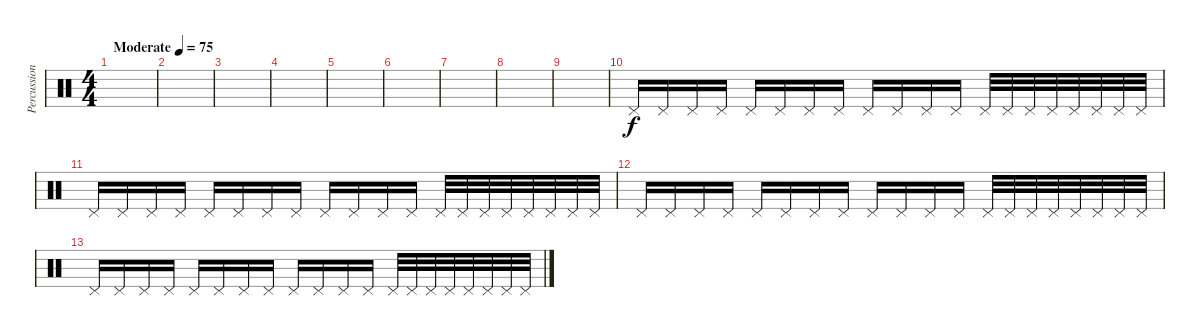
\track ("Percussion" "Percussion") {instrument percussion}
\staff {score}
\articulation defaults
\ts (4 4)
\tempo (75 "Moderate")
\clef neutral
\ks c
|
|
|
|
|
|
|
|
|
"Pedal Hi-Hat (hit)".16 "Pedal Hi-Hat (hit)".16 "Pedal Hi-Hat (hit)".16 "Pedal Hi-Hat (hit)".16 "Pedal Hi-Hat (hit)".16 "Pedal Hi-Hat (hit)".16 "Pedal Hi-Hat (hit)".16 "Pedal Hi-Hat (hit)".16 "Pedal Hi-Hat (hit)".16 "Pedal Hi-Hat (hit)".16 "Pedal Hi-Hat (hit)".16 "Pedal Hi-Hat (hit)".16 "Pedal Hi-Hat (hit)".32 "Pedal Hi-Hat (hit)".32 "Pedal Hi-Hat (hit)".32 "Pedal Hi-Hat (hit)".32 "Pedal Hi-Hat (hit)".32 "Pedal Hi-Hat (hit)".32 "Pedal Hi-Hat (hit)".32 "Pedal Hi-Hat (hit)".32 |
"Pedal Hi-Hat (hit)".16 "Pedal Hi-Hat (hit)".16 "Pedal Hi-Hat (hit)".16 "Pedal Hi-Hat (hit)".16 "Pedal Hi-Hat (hit)".16 "Pedal Hi-Hat (hit)".16 "Pedal Hi-Hat (hit)".16 "Pedal Hi-Hat (hit)".16 "Pedal Hi-Hat (hit)".16 "Pedal Hi-Hat (hit)".16 "Pedal Hi-Hat (hit)".16 "Pedal Hi-Hat (hit)".16 "Pedal Hi-Hat (hit)".32 "Pedal Hi-Hat (hit)".32 "Pedal Hi-Hat (hit)".32 "Pedal Hi-Hat (hit)".32 "Pedal Hi-Hat (hit)".32 "Pedal Hi-Hat (hit)".32 "Pedal Hi-Hat (hit)".32 "Pedal Hi-Hat (hit)".32 |
"Pedal Hi-Hat (hit)".16 "Pedal Hi-Hat (hit)".16 "Pedal Hi-Hat (hit)".16 "Pedal Hi-Hat (hit)".16 "Pedal Hi-Hat (hit)".16 "Pedal Hi-Hat (hit)".16 "Pedal Hi-Hat (hit)".16 "Pedal Hi-Hat (hit)".16 "Pedal Hi-Hat (hit)".16 "Pedal Hi-Hat (hit)".16 "Pedal Hi-Hat (hit)".16 "Pedal Hi-Hat (hit)".16 "Pedal Hi-Hat (hit)".32 "Pedal Hi-Hat (hit)".32 "Pedal Hi-Hat (hit)".32 "Pedal Hi-Hat (hit)".32 "Pedal Hi-Hat (hit)".32 "Pedal Hi-Hat (hit)".32 "Pedal Hi-Hat (hit)".32 "Pedal Hi-Hat (hit)".32 |
"Pedal Hi-Hat (hit)".16 "Pedal Hi-Hat (hit)".16 "Pedal Hi-Hat (hit)".16 "Pedal Hi-Hat (hit)".16 "Pedal Hi-Hat (hit)".16 "Pedal Hi-Hat (hit)".16 "Pedal Hi-Hat (hit)".16 "Pedal Hi-Hat (hit)".16 "Pedal Hi-Hat (hit)".16 "Pedal Hi-Hat (hit)".16 "Pedal Hi-Hat (hit)".16 "Pedal Hi-Hat (hit)".16 "Pedal Hi-Hat (hit)".32 "Pedal Hi-Hat (hit)".32 "Pedal Hi-Hat (hit)".32 "Pedal Hi-Hat (hit)".32 "Pedal Hi-Hat (hit)".32 "Pedal Hi-Hat (hit)".32 "Pedal Hi-Hat (hit)".32 "Pedal Hi-Hat (hit)".32
